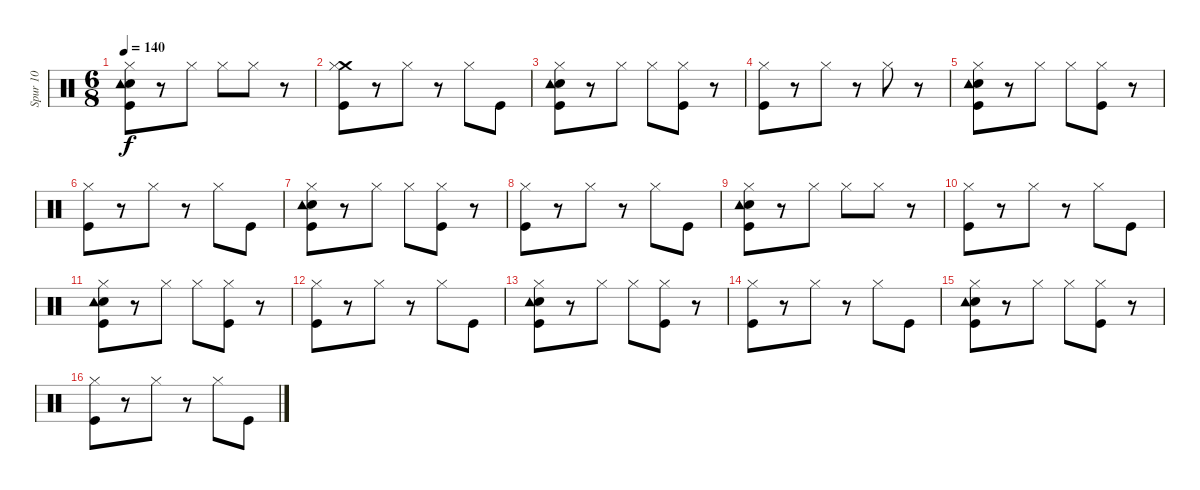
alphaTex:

\track ("Spur 10" "Spur 10") {instrument percussion}
\staff {score}
\articulation defaults
\ts (6 8)
\tempo 140
\clef neutral
\ks c
("Kick (hit)" "Snare (hit) 2" "Tambourine (hit)" "Hi-Hat (closed)").8{dy f} r.8 "Hi-Hat (closed)".8 "Hi-Hat (closed)".8 "Hi-Hat (closed)".8 r.8 |
("Crash medium (hit)" "Kick (hit)" "Hi-Hat (closed)").8 r.8 "Hi-Hat (closed)".8 r.8 "Hi-Hat (closed)".8 "Kick (hit)".8 |
("Kick (hit)" "Snare (hit) 2" "Tambourine (hit)" "Hi-Hat (closed)").8 r.8 "Hi-Hat (closed)".8 "Hi-Hat (closed)".8 ("Kick (hit)" "Hi-Hat (closed)").8 r.8 |
("Kick (hit)" "Hi-Hat (closed)").8 r.8 "Hi-Hat (closed)".8 r.8 "Hi-Hat (closed)".8 r.8 |
("Kick (hit)" "Snare (hit) 2" "Tambourine (hit)" "Hi-Hat (closed)").8 r.8 "Hi-Hat (closed)".8 "Hi-Hat (closed)".8 ("Kick (hit)" "Hi-Hat (closed)").8 r.8 |
("Kick (hit)" "Hi-Hat (closed)").8 r.8 "Hi-Hat (closed)".8 r.8 "Hi-Hat (closed)".8 "Kick (hit)".8 |
("Kick (hit)" "Snare (hit) 2" "Tambourine (hit)" "Hi-Hat (closed)").8 r.8 "Hi-Hat (closed)".8 "Hi-Hat (closed)".8 ("Kick (hit)" "Hi-Hat (closed)").8 r.8 |
("Kick (hit)" "Hi-Hat (closed)").8 r.8 "Hi-Hat (closed)".8 r.8 "Hi-Hat (closed)".8 "Kick (hit)".8 |
("Kick (hit)" "Snare (hit) 2" "Tambourine (hit)" "Hi-Hat (closed)").8 r.8 "Hi-Hat (closed)".8 "Hi-Hat (closed)".8 "Hi-Hat (closed)".8 r.8 |
("Kick (hit)" "Hi-Hat (closed)").8 r.8 "Hi-Hat (closed)".8 r.8 "Hi-Hat (closed)".8 "Kick (hit)".8 |
("Kick (hit)" "Snare (hit) 2" "Tambourine (hit)" "Hi-Hat (closed)").8 r.8 "Hi-Hat (closed)".8 "Hi-Hat (closed)".8 ("Kick (hit)" "Hi-Hat (closed)").8 r.8 |
("Kick (hit)" "Hi-Hat (closed)").8 r.8 "Hi-Hat (closed)".8 r.8 "Hi-Hat (closed)".8 "Kick (hit)".8 |
("Kick (hit)" "Snare (hit) 2" "Tambourine (hit)" "Hi-Hat (closed)").8 r.8 "Hi-Hat (closed)".8 "Hi-Hat (closed)".8 ("Kick (hit)" "Hi-Hat (closed)").8 r.8 |
("Kick (hit)" "Hi-Hat (closed)").8 r.8 "Hi-Hat (closed)".8 r.8 "Hi-Hat (closed)".8 "Kick (hit)".8 |
("Kick (hit)" "Snare (hit) 2" "Tambourine (hit)" "Hi-Hat (closed)").8 r.8 "Hi-Hat (closed)".8 "Hi-Hat (closed)".8 ("Kick (hit)" "Hi-Hat (closed)").8 r.8 |
("Kick (hit)" "Hi-Hat (closed)").8 r.8 "Hi-Hat (closed)".8 r.8 "Hi-Hat (closed)".8 "Kick (hit)".8
